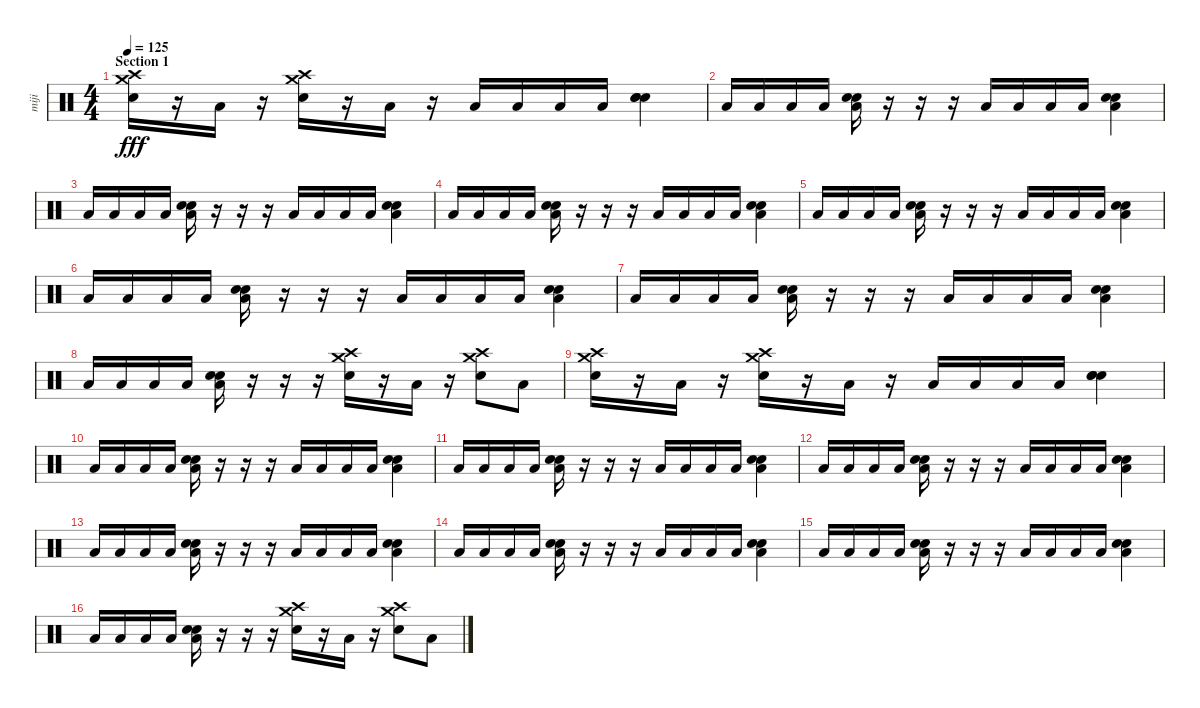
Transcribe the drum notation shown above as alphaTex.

\track ("miji" "miji") {instrument percussion}
\staff {score}
\articulation defaults
\ts (4 4)
\section ("" "Section 1")
\tempo 125
\clef neutral
\ks c
("Crash high (hit)" "Electric Snare (hit)" "Crash medium (hit)").16{dy fff} r.16 "Low Floor Tom (hit)".16 r.16 ("Crash high (hit)" "Electric Snare (hit)" "Crash medium (hit)").16 r.16 "Low Floor Tom (hit)".16 r.16 "Low Floor Tom (hit)".16 "Low Floor Tom (hit)".16 "Low Floor Tom (hit)".16 "Low Floor Tom (hit)".16 ("Electric Snare (hit)" "Electric Snare (hit)" "Electric Snare (hit)").4 |
"Low Floor Tom (hit)".16 "Low Floor Tom (hit)".16 "Low Floor Tom (hit)".16 "Low Floor Tom (hit)".16 ("Low Floor Tom (hit)" "Electric Snare (hit)" "Electric Snare (hit)").16 r.16 r.16 r.16 "Low Floor Tom (hit)".16 "Low Floor Tom (hit)".16 "Low Floor Tom (hit)".16 "Low Floor Tom (hit)".16 ("Low Floor Tom (hit)" "Electric Snare (hit)" "Electric Snare (hit)").4 |
"Low Floor Tom (hit)".16 "Low Floor Tom (hit)".16 "Low Floor Tom (hit)".16 "Low Floor Tom (hit)".16 ("Low Floor Tom (hit)" "Electric Snare (hit)" "Electric Snare (hit)").16 r.16 r.16 r.16 "Low Floor Tom (hit)".16 "Low Floor Tom (hit)".16 "Low Floor Tom (hit)".16 "Low Floor Tom (hit)".16 ("Low Floor Tom (hit)" "Electric Snare (hit)" "Electric Snare (hit)").4 |
"Low Floor Tom (hit)".16 "Low Floor Tom (hit)".16 "Low Floor Tom (hit)".16 "Low Floor Tom (hit)".16 ("Low Floor Tom (hit)" "Electric Snare (hit)" "Electric Snare (hit)").16 r.16 r.16 r.16 "Low Floor Tom (hit)".16 "Low Floor Tom (hit)".16 "Low Floor Tom (hit)".16 "Low Floor Tom (hit)".16 ("Low Floor Tom (hit)" "Electric Snare (hit)" "Electric Snare (hit)").4 |
"Low Floor Tom (hit)".16 "Low Floor Tom (hit)".16 "Low Floor Tom (hit)".16 "Low Floor Tom (hit)".16 ("Low Floor Tom (hit)" "Electric Snare (hit)" "Electric Snare (hit)").16 r.16 r.16 r.16 "Low Floor Tom (hit)".16 "Low Floor Tom (hit)".16 "Low Floor Tom (hit)".16 "Low Floor Tom (hit)".16 ("Low Floor Tom (hit)" "Electric Snare (hit)" "Electric Snare (hit)").4 |
"Low Floor Tom (hit)".16 "Low Floor Tom (hit)".16 "Low Floor Tom (hit)".16 "Low Floor Tom (hit)".16 ("Low Floor Tom (hit)" "Electric Snare (hit)" "Electric Snare (hit)").16 r.16 r.16 r.16 "Low Floor Tom (hit)".16 "Low Floor Tom (hit)".16 "Low Floor Tom (hit)".16 "Low Floor Tom (hit)".16 ("Low Floor Tom (hit)" "Electric Snare (hit)" "Electric Snare (hit)").4 |
"Low Floor Tom (hit)".16 "Low Floor Tom (hit)".16 "Low Floor Tom (hit)".16 "Low Floor Tom (hit)".16 ("Low Floor Tom (hit)" "Electric Snare (hit)" "Electric Snare (hit)").16 r.16 r.16 r.16 "Low Floor Tom (hit)".16 "Low Floor Tom (hit)".16 "Low Floor Tom (hit)".16 "Low Floor Tom (hit)".16 ("Low Floor Tom (hit)" "Electric Snare (hit)" "Electric Snare (hit)").4 |
"Low Floor Tom (hit)".16 "Low Floor Tom (hit)".16 "Low Floor Tom (hit)".16 "Low Floor Tom (hit)".16 ("Low Floor Tom (hit)" "Electric Snare (hit)" "Electric Snare (hit)").16 r.16 r.16 r.16 ("Crash high (hit)" "Electric Snare (hit)" "Crash medium (hit)").16 r.16 "Low Floor Tom (hit)".16 r.16 ("Crash high (hit)" "Electric Snare (hit)" "Crash medium (hit)").8 "Low Floor Tom (hit)".8 |
("Crash high (hit)" "Electric Snare (hit)" "Crash medium (hit)").16 r.16 "Low Floor Tom (hit)".16 r.16 ("Crash high (hit)" "Electric Snare (hit)" "Crash medium (hit)").16 r.16 "Low Floor Tom (hit)".16 r.16 "Low Floor Tom (hit)".16 "Low Floor Tom (hit)".16 "Low Floor Tom (hit)".16 "Low Floor Tom (hit)".16 ("Electric Snare (hit)" "Electric Snare (hit)" "Electric Snare (hit)").4 |
"Low Floor Tom (hit)".16 "Low Floor Tom (hit)".16 "Low Floor Tom (hit)".16 "Low Floor Tom (hit)".16 ("Low Floor Tom (hit)" "Electric Snare (hit)" "Electric Snare (hit)").16 r.16 r.16 r.16 "Low Floor Tom (hit)".16 "Low Floor Tom (hit)".16 "Low Floor Tom (hit)".16 "Low Floor Tom (hit)".16 ("Low Floor Tom (hit)" "Electric Snare (hit)" "Electric Snare (hit)").4 |
"Low Floor Tom (hit)".16 "Low Floor Tom (hit)".16 "Low Floor Tom (hit)".16 "Low Floor Tom (hit)".16 ("Low Floor Tom (hit)" "Electric Snare (hit)" "Electric Snare (hit)").16 r.16 r.16 r.16 "Low Floor Tom (hit)".16 "Low Floor Tom (hit)".16 "Low Floor Tom (hit)".16 "Low Floor Tom (hit)".16 ("Low Floor Tom (hit)" "Electric Snare (hit)" "Electric Snare (hit)").4 |
"Low Floor Tom (hit)".16 "Low Floor Tom (hit)".16 "Low Floor Tom (hit)".16 "Low Floor Tom (hit)".16 ("Low Floor Tom (hit)" "Electric Snare (hit)" "Electric Snare (hit)").16 r.16 r.16 r.16 "Low Floor Tom (hit)".16 "Low Floor Tom (hit)".16 "Low Floor Tom (hit)".16 "Low Floor Tom (hit)".16 ("Low Floor Tom (hit)" "Electric Snare (hit)" "Electric Snare (hit)").4 |
"Low Floor Tom (hit)".16 "Low Floor Tom (hit)".16 "Low Floor Tom (hit)".16 "Low Floor Tom (hit)".16 ("Low Floor Tom (hit)" "Electric Snare (hit)" "Electric Snare (hit)").16 r.16 r.16 r.16 "Low Floor Tom (hit)".16 "Low Floor Tom (hit)".16 "Low Floor Tom (hit)".16 "Low Floor Tom (hit)".16 ("Low Floor Tom (hit)" "Electric Snare (hit)" "Electric Snare (hit)").4 |
"Low Floor Tom (hit)".16 "Low Floor Tom (hit)".16 "Low Floor Tom (hit)".16 "Low Floor Tom (hit)".16 ("Low Floor Tom (hit)" "Electric Snare (hit)" "Electric Snare (hit)").16 r.16 r.16 r.16 "Low Floor Tom (hit)".16 "Low Floor Tom (hit)".16 "Low Floor Tom (hit)".16 "Low Floor Tom (hit)".16 ("Low Floor Tom (hit)" "Electric Snare (hit)" "Electric Snare (hit)").4 |
"Low Floor Tom (hit)".16 "Low Floor Tom (hit)".16 "Low Floor Tom (hit)".16 "Low Floor Tom (hit)".16 ("Low Floor Tom (hit)" "Electric Snare (hit)" "Electric Snare (hit)").16 r.16 r.16 r.16 "Low Floor Tom (hit)".16 "Low Floor Tom (hit)".16 "Low Floor Tom (hit)".16 "Low Floor Tom (hit)".16 ("Low Floor Tom (hit)" "Electric Snare (hit)" "Electric Snare (hit)").4 |
"Low Floor Tom (hit)".16 "Low Floor Tom (hit)".16 "Low Floor Tom (hit)".16 "Low Floor Tom (hit)".16 ("Low Floor Tom (hit)" "Electric Snare (hit)" "Electric Snare (hit)").16 r.16 r.16 r.16 ("Crash high (hit)" "Electric Snare (hit)" "Crash medium (hit)").16 r.16 "Low Floor Tom (hit)".16 r.16 ("Crash high (hit)" "Electric Snare (hit)" "Crash medium (hit)").8 "Low Floor Tom (hit)".8
